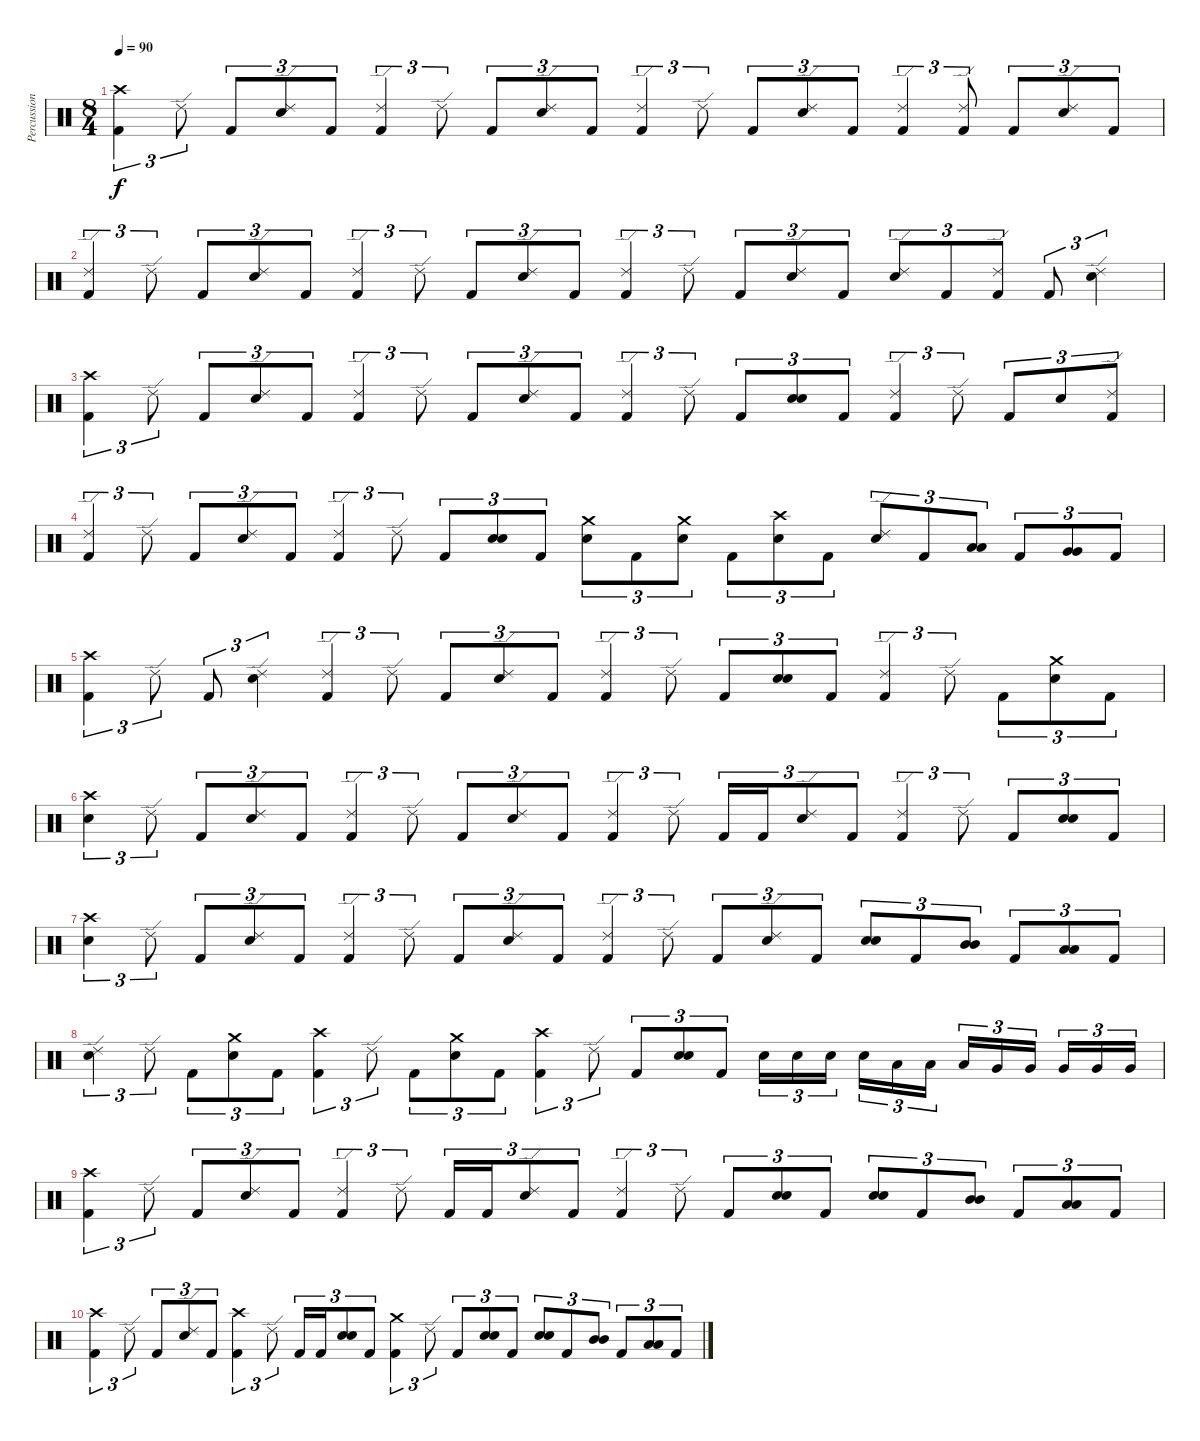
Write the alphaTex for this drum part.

\track ("Percussion" "Percussion") {instrument percussion}
\staff {score}
\articulation defaults
\ts (8 4)
\tempo 90
\clef neutral
\ks c
("Crash high (hit)" "Kick (hit) 2").4{tu (3 2) dy f} "Ride (edge) 2".8{tu (3 2)} "Kick (hit) 2".8{tu (3 2)} ("Ride (edge) 2" "Electric Snare (hit)").8{tu (3 2)} "Kick (hit) 2".8{tu (3 2)} ("Ride (edge) 2" "Kick (hit) 2").4{tu (3 2)} "Ride (edge) 2".8{tu (3 2)} "Kick (hit) 2".8{tu (3 2)} ("Ride (edge) 2" "Electric Snare (hit)").8{tu (3 2)} "Kick (hit) 2".8{tu (3 2)} ("Ride (edge) 2" "Kick (hit) 2").4{tu (3 2)} "Ride (edge) 2".8{tu (3 2)} "Kick (hit) 2".8{tu (3 2)} ("Ride (edge) 2" "Electric Snare (hit)").8{tu (3 2)} "Kick (hit) 2".8{tu (3 2)} ("Ride (edge) 2" "Kick (hit) 2").4{tu (3 2)} ("Ride (edge) 2" "Kick (hit) 2").8{tu (3 2)} "Kick (hit) 2".8{tu (3 2)} ("Ride (edge) 2" "Electric Snare (hit)").8{tu (3 2)} "Kick (hit) 2".8{tu (3 2)} |
("Ride (edge) 2" "Kick (hit) 2").4{tu (3 2)} "Ride (edge) 2".8{tu (3 2)} "Kick (hit) 2".8{tu (3 2)} ("Ride (edge) 2" "Electric Snare (hit)").8{tu (3 2)} "Kick (hit) 2".8{tu (3 2)} ("Ride (edge) 2" "Kick (hit) 2").4{tu (3 2)} "Ride (edge) 2".8{tu (3 2)} "Kick (hit) 2".8{tu (3 2)} ("Ride (edge) 2" "Electric Snare (hit)").8{tu (3 2)} "Kick (hit) 2".8{tu (3 2)} ("Ride (edge) 2" "Kick (hit) 2").4{tu (3 2)} "Ride (edge) 2".8{tu (3 2)} "Kick (hit) 2".8{tu (3 2)} ("Ride (edge) 2" "Electric Snare (hit)").8{tu (3 2)} "Kick (hit) 2".8{tu (3 2)} ("Ride (edge) 2" "Electric Snare (hit)").8{tu (3 2)} "Kick (hit) 2".8{tu (3 2)} ("Ride (edge) 2" "Kick (hit) 2").8{tu (3 2)} "Kick (hit) 2".8{tu (3 2)} ("Ride (edge) 2" "Electric Snare (hit)").4{tu (3 2)} |
("Crash high (hit)" "Kick (hit) 2").4{tu (3 2)} "Ride (edge) 2".8{tu (3 2)} "Kick (hit) 2".8{tu (3 2)} ("Ride (edge) 2" "Electric Snare (hit)").8{tu (3 2)} "Kick (hit) 2".8{tu (3 2)} ("Ride (edge) 2" "Kick (hit) 2").4{tu (3 2)} "Ride (edge) 2".8{tu (3 2)} "Kick (hit) 2".8{tu (3 2)} ("Ride (edge) 2" "Electric Snare (hit)").8{tu (3 2)} "Kick (hit) 2".8{tu (3 2)} ("Ride (edge) 2" "Kick (hit) 2").4{tu (3 2)} "Ride (edge) 2".8{tu (3 2)} "Kick (hit) 2".8{tu (3 2)} ("Electric Snare (hit)" "Electric Snare (hit)").8{tu (3 2) bu 60} "Kick (hit) 2".8{tu (3 2)} ("Ride (edge) 2" "Kick (hit) 2").4{tu (3 2)} "Ride (edge) 2".8{tu (3 2)} "Kick (hit) 2".8{tu (3 2)} "Electric Snare (hit)".8{tu (3 2)} ("Ride (edge) 2" "Kick (hit) 2").8{tu (3 2)} |
("Ride (edge) 2" "Kick (hit) 2").4{tu (3 2)} "Ride (edge) 2".8{tu (3 2)} "Kick (hit) 2".8{tu (3 2)} ("Ride (edge) 2" "Electric Snare (hit)").8{tu (3 2)} "Kick (hit) 2".8{tu (3 2)} ("Ride (edge) 2" "Kick (hit) 2").4{tu (3 2)} "Ride (edge) 2".8{tu (3 2)} "Kick (hit) 2".8{tu (3 2)} ("Electric Snare (hit)" "Electric Snare (hit)").8{tu (3 2) bu 60} "Kick (hit) 2".8{tu (3 2)} ("Crash medium (hit)" "Electric Snare (hit)").8{tu (3 2)} "Kick (hit) 2".8{tu (3 2)} ("Crash medium (hit)" "Electric Snare (hit)").8{tu (3 2)} "Kick (hit) 2".8{tu (3 2)} ("Crash high (hit)" "Electric Snare (hit)").8{tu (3 2)} "Kick (hit) 2".8{tu (3 2)} ("Ride (edge) 2" "Electric Snare (hit)").8{tu (3 2)} "Kick (hit) 2".8{tu (3 2)} ("Low Tom (hit)" "Low Tom (hit)").8{tu (3 2) bu 60} "Kick (hit) 2".8{tu (3 2)} ("Very Low Tom (hit)" "Very Low Tom (hit)").8{tu (3 2) bu 60} "Kick (hit) 2".8{tu (3 2)} |
("Crash high (hit)" "Kick (hit) 2").4{tu (3 2)} "Ride (edge) 2".8{tu (3 2)} "Kick (hit) 2".8{tu (3 2)} ("Ride (edge) 2" "Electric Snare (hit)").4{tu (3 2)} ("Ride (edge) 2" "Kick (hit) 2").4{tu (3 2)} "Ride (edge) 2".8{tu (3 2)} "Kick (hit) 2".8{tu (3 2)} ("Ride (edge) 2" "Electric Snare (hit)").8{tu (3 2)} "Kick (hit) 2".8{tu (3 2)} ("Ride (edge) 2" "Kick (hit) 2").4{tu (3 2)} "Ride (edge) 2".8{tu (3 2)} "Kick (hit) 2".8{tu (3 2)} ("Electric Snare (hit)" "Electric Snare (hit)").8{tu (3 2) bu 60} "Kick (hit) 2".8{tu (3 2)} ("Ride (edge) 2" "Kick (hit) 2").4{tu (3 2)} "Ride (edge) 2".8{tu (3 2)} "Kick (hit) 2".8{tu (3 2)} ("Crash medium (hit)" "Electric Snare (hit)").8{tu (3 2)} "Kick (hit) 2".8{tu (3 2)} |
("Crash high (hit)" "Electric Snare (hit)").4{tu (3 2)} "Ride (edge) 2".8{tu (3 2)} "Kick (hit) 2".8{tu (3 2)} ("Ride (edge) 2" "Electric Snare (hit)").8{tu (3 2)} "Kick (hit) 2".8{tu (3 2)} ("Ride (edge) 2" "Kick (hit) 2").4{tu (3 2)} "Ride (edge) 2".8{tu (3 2)} "Kick (hit) 2".8{tu (3 2)} ("Ride (edge) 2" "Electric Snare (hit)").8{tu (3 2)} "Kick (hit) 2".8{tu (3 2)} ("Ride (edge) 2" "Kick (hit) 2").4{tu (3 2)} "Ride (edge) 2".8{tu (3 2)} "Kick (hit) 2".16{tu (3 2)} "Kick (hit) 2".16{tu (3 2)} ("Ride (edge) 2" "Electric Snare (hit)").8{tu (3 2)} "Kick (hit) 2".8{tu (3 2)} ("Ride (edge) 2" "Kick (hit) 2").4{tu (3 2)} "Ride (edge) 2".8{tu (3 2)} "Kick (hit) 2".8{tu (3 2)} ("Electric Snare (hit)" "Electric Snare (hit)").8{tu (3 2) bu 60} "Kick (hit) 2".8{tu (3 2)} |
("Crash high (hit)" "Electric Snare (hit)").4{tu (3 2)} "Ride (edge) 2".8{tu (3 2)} "Kick (hit) 2".8{tu (3 2)} ("Ride (edge) 2" "Electric Snare (hit)").8{tu (3 2)} "Kick (hit) 2".8{tu (3 2)} ("Ride (edge) 2" "Kick (hit) 2").4{tu (3 2)} "Ride (edge) 2".8{tu (3 2)} "Kick (hit) 2".8{tu (3 2)} ("Ride (edge) 2" "Electric Snare (hit)").8{tu (3 2)} "Kick (hit) 2".8{tu (3 2)} ("Ride (edge) 2" "Kick (hit) 2").4{tu (3 2)} "Ride (edge) 2".8{tu (3 2)} "Kick (hit) 2".8{tu (3 2)} ("Ride (edge) 2" "Electric Snare (hit)").8{tu (3 2)} "Kick (hit) 2".8{tu (3 2)} ("Electric Snare (hit)" "Electric Snare (hit)").8{tu (3 2) bu 60} "Kick (hit) 2".8{tu (3 2)} ("Mid Tom (hit)" "Mid Tom (hit)").8{tu (3 2) bu 60} "Kick (hit) 2".8{tu (3 2)} ("Low Tom (hit)" "Low Tom (hit)").8{tu (3 2) bu 60} "Kick (hit) 2".8{tu (3 2)} |
("Ride (edge) 2" "Electric Snare (hit)").4{tu (3 2)} "Ride (edge) 2".8{tu (3 2)} "Kick (hit) 2".8{tu (3 2)} ("Crash medium (hit)" "Electric Snare (hit)").8{tu (3 2)} "Kick (hit) 2".8{tu (3 2)} ("Crash high (hit)" "Kick (hit) 2").4{tu (3 2)} "Ride (edge) 2".8{tu (3 2)} "Kick (hit) 2".8{tu (3 2)} ("Crash medium (hit)" "Electric Snare (hit)").8{tu (3 2)} "Kick (hit) 2".8{tu (3 2)} ("Crash high (hit)" "Kick (hit) 2").4{tu (3 2)} "Ride (edge) 2".8{tu (3 2)} "Kick (hit) 2".8{tu (3 2)} ("Electric Snare (hit)" "Electric Snare (hit)").8{tu (3 2) bu 60} "Kick (hit) 2".8{tu (3 2)} "Electric Snare (hit)".16{tu (3 2)} "Electric Snare (hit)".16{tu (3 2)} "Electric Snare (hit)".16{tu (3 2)} "Electric Snare (hit)".16{tu (3 2)} "Low Tom (hit)".16{tu (3 2)} "Low Tom (hit)".16{tu (3 2)} "Low Tom (hit)".16{tu (3 2)} "Very Low Tom (hit)".16{tu (3 2)} "Very Low Tom (hit)".16{tu (3 2)} "Very Low Tom (hit)".16{tu (3 2)} "Very Low Tom (hit)".16{tu (3 2)} "Very Low Tom (hit)".16{tu (3 2)} |
("Crash high (hit)" "Kick (hit) 2").4{tu (3 2)} "Ride (edge) 2".8{tu (3 2)} "Kick (hit) 2".8{tu (3 2)} ("Ride (edge) 2" "Electric Snare (hit)").8{tu (3 2)} "Kick (hit) 2".8{tu (3 2)} ("Ride (edge) 2" "Kick (hit) 2").4{tu (3 2)} "Ride (edge) 2".8{tu (3 2)} "Kick (hit) 2".16{tu (3 2)} "Kick (hit) 2".16{tu (3 2)} ("Ride (edge) 2" "Electric Snare (hit)").8{tu (3 2)} "Kick (hit) 2".8{tu (3 2)} ("Ride (edge) 2" "Kick (hit) 2").4{tu (3 2)} "Ride (edge) 2".8{tu (3 2)} "Kick (hit) 2".8{tu (3 2)} ("Electric Snare (hit)" "Electric Snare (hit)").8{tu (3 2) bu 60} "Kick (hit) 2".8{tu (3 2)} ("Electric Snare (hit)" "Electric Snare (hit)").8{tu (3 2) bu 60} "Kick (hit) 2".8{tu (3 2)} ("Mid Tom (hit)" "Mid Tom (hit)").8{tu (3 2) bu 60} "Kick (hit) 2".8{tu (3 2)} ("Low Tom (hit)" "Low Tom (hit)").8{tu (3 2) bu 60} "Kick (hit) 2".8{tu (3 2)} |
("Crash high (hit)" "Kick (hit) 2").4{tu (3 2)} "Ride (edge) 2".8{tu (3 2)} "Kick (hit) 2".8{tu (3 2)} ("Ride (edge) 2" "Electric Snare (hit)").8{tu (3 2)} "Kick (hit) 2".8{tu (3 2)} ("Crash high (hit)" "Kick (hit) 2").4{tu (3 2)} "Ride (edge) 2".8{tu (3 2)} "Kick (hit) 2".16{tu (3 2)} "Kick (hit) 2".16{tu (3 2)} ("Electric Snare (hit)" "Electric Snare (hit)").8{tu (3 2) bu 60} "Kick (hit) 2".8{tu (3 2)} ("Crash medium (hit)" "Kick (hit) 2").4{tu (3 2)} "Ride (edge) 2".8{tu (3 2)} "Kick (hit) 2".8{tu (3 2)} ("Electric Snare (hit)" "Electric Snare (hit)").8{tu (3 2) bu 60} "Kick (hit) 2".8{tu (3 2)} ("Electric Snare (hit)" "Electric Snare (hit)").8{tu (3 2) bu 60} "Kick (hit) 2".8{tu (3 2)} ("Mid Tom (hit)" "Mid Tom (hit)").8{tu (3 2) bu 60} "Kick (hit) 2".8{tu (3 2)} ("Low Tom (hit)" "Low Tom (hit)").8{tu (3 2) bu 60} "Kick (hit) 2".8{tu (3 2)}
